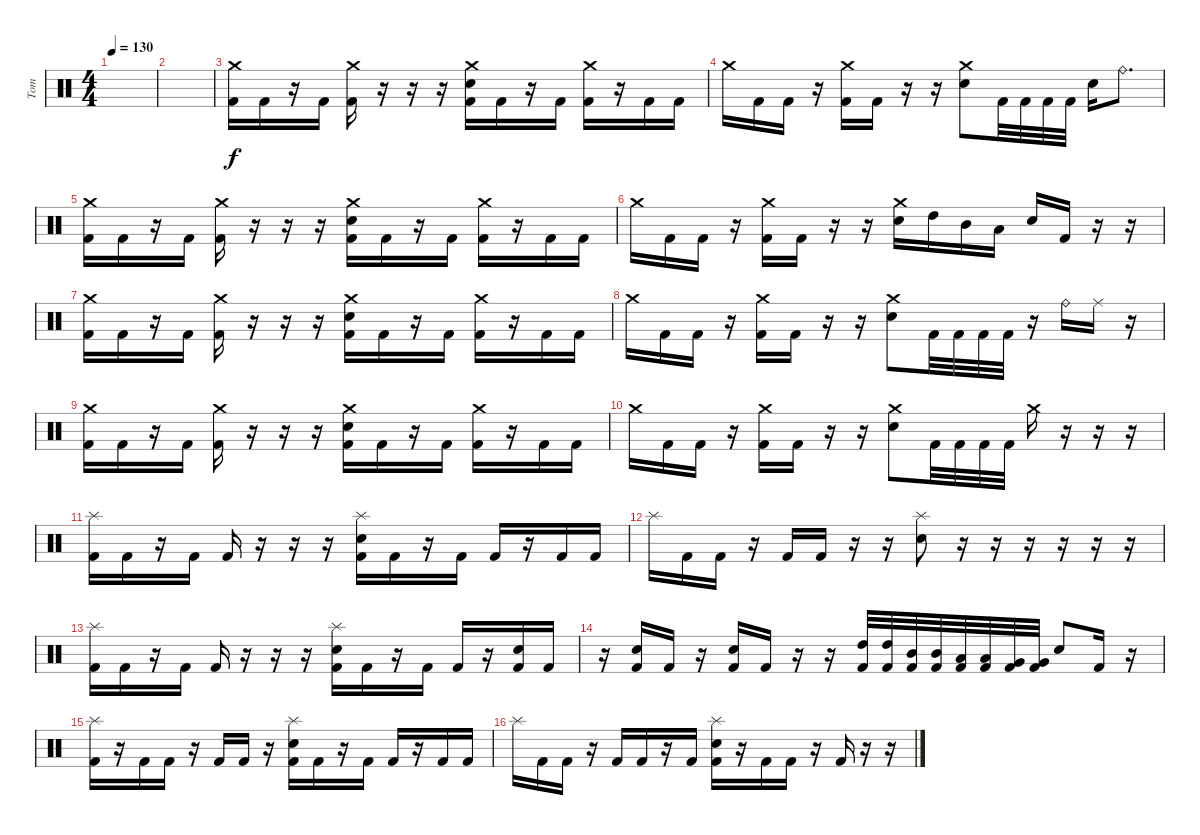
\track ("Tom" "Tom") {instrument percussion}
\staff {score}
\articulation defaults
\ts (4 4)
\tempo 130
\clef neutral
\ks c
|
|
("Crash medium (hit)" "Kick (hit) 2").16 "Kick (hit) 2".16 r.16 "Kick (hit) 2".16 ("Crash medium (hit)" "Kick (hit) 2").16 r.16 r.16 r.16 ("Crash medium (hit)" "Electric Snare (hit)" "Kick (hit) 2").16 "Kick (hit) 2".16 r.16 "Kick (hit) 2".16 ("Crash medium (hit)" "Kick (hit) 2").16 r.16 "Kick (hit) 2".16 "Kick (hit) 2".16 |
"Crash medium (hit)".16 "Kick (hit) 2".16 "Kick (hit) 2".16 r.16 ("Crash medium (hit)" "Kick (hit) 2").16 "Kick (hit) 2".16 r.16 r.16 ("Crash medium (hit)" "Electric Snare (hit)").8 "Kick (hit) 2".32 "Kick (hit) 2".32 "Kick (hit) 2".32 "Kick (hit) 2".32 "Electric Snare (hit)".16 "Ride (bell)".8{d} |
("Crash medium (hit)" "Kick (hit) 2").16 "Kick (hit) 2".16 r.16 "Kick (hit) 2".16 ("Crash medium (hit)" "Kick (hit) 2").16 r.16 r.16 r.16 ("Crash medium (hit)" "Electric Snare (hit)" "Kick (hit) 2").16 "Kick (hit) 2".16 r.16 "Kick (hit) 2".16 ("Crash medium (hit)" "Kick (hit) 2").16 r.16 "Kick (hit) 2".16 "Kick (hit) 2".16 |
"Crash medium (hit)".16 "Kick (hit) 2".16 "Kick (hit) 2".16 r.16 ("Crash medium (hit)" "Kick (hit) 2").16 "Kick (hit) 2".16 r.16 r.16 ("Crash medium (hit)" "Electric Snare (hit)").16 "High Tom (hit)".16 "Mid Tom (hit)".16 "Low Tom (hit)".16 "Electric Snare (hit)".16 "Kick (hit) 2".16 r.16 r.16 |
("Crash medium (hit)" "Kick (hit) 2").16 "Kick (hit) 2".16 r.16 "Kick (hit) 2".16 ("Crash medium (hit)" "Kick (hit) 2").16 r.16 r.16 r.16 ("Crash medium (hit)" "Electric Snare (hit)" "Kick (hit) 2").16 "Kick (hit) 2".16 r.16 "Kick (hit) 2".16 ("Crash medium (hit)" "Kick (hit) 2").16 r.16 "Kick (hit) 2".16 "Kick (hit) 2".16 |
"Crash medium (hit)".16 "Kick (hit) 2".16 "Kick (hit) 2".16 r.16 ("Crash medium (hit)" "Kick (hit) 2").16 "Kick (hit) 2".16 r.16 r.16 ("Crash medium (hit)" "Electric Snare (hit)").8 "Kick (hit) 2".32 "Kick (hit) 2".32 "Kick (hit) 2".32 "Kick (hit) 2".32 r.16 "Ride (bell)".16 "Ride (middle)".16 r.16 |
("Crash medium (hit)" "Kick (hit) 2").16 "Kick (hit) 2".16 r.16 "Kick (hit) 2".16 ("Crash medium (hit)" "Kick (hit) 2").16 r.16 r.16 r.16 ("Crash medium (hit)" "Electric Snare (hit)" "Kick (hit) 2").16 "Kick (hit) 2".16 r.16 "Kick (hit) 2".16 ("Crash medium (hit)" "Kick (hit) 2").16 r.16 "Kick (hit) 2".16 "Kick (hit) 2".16 |
"Crash medium (hit)".16 "Kick (hit) 2".16 "Kick (hit) 2".16 r.16 ("Crash medium (hit)" "Kick (hit) 2").16 "Kick (hit) 2".16 r.16 r.16 ("Crash medium (hit)" "Electric Snare (hit)").8 "Kick (hit) 2".32 "Kick (hit) 2".32 "Kick (hit) 2".32 "Kick (hit) 2".32 "Crash medium (hit)".16 r.16 r.16 r.16 |
("Splash (hit)" "Kick (hit) 2").16 "Kick (hit) 2".16 r.16 "Kick (hit) 2".16 "Kick (hit) 2".16 r.16 r.16 r.16 ("Splash (hit)" "Electric Snare (hit)" "Kick (hit) 2").16 "Kick (hit) 2".16 r.16 "Kick (hit) 2".16 "Kick (hit) 2".16 r.16 "Kick (hit) 2".16 "Kick (hit) 2".16 |
"Splash (hit)".16 "Kick (hit) 2".16 "Kick (hit) 2".16 r.16 "Kick (hit) 2".16 "Kick (hit) 2".16 r.16 r.16 ("Splash (hit)" "Electric Snare (hit)").8 r.16 r.16 r.16 r.16 r.16 r.16 |
("Splash (hit)" "Kick (hit) 2").16 "Kick (hit) 2".16 r.16 "Kick (hit) 2".16 "Kick (hit) 2".16 r.16 r.16 r.16 ("Splash (hit)" "Electric Snare (hit)" "Kick (hit) 2").16 "Kick (hit) 2".16 r.16 "Kick (hit) 2".16 "Kick (hit) 2".16 r.16 ("Electric Snare (hit)" "Kick (hit) 2").16 "Kick (hit) 2".16 |
r.16 ("Electric Snare (hit)" "Kick (hit) 2").16 "Kick (hit) 2".16 r.16 ("Electric Snare (hit)" "Kick (hit) 2").16 "Kick (hit) 2".16 r.16 r.16 ("High Tom (hit)" "Kick (hit) 2").32 ("High Tom (hit)" "Kick (hit) 2").32 ("Mid Tom (hit)" "Kick (hit) 2").32 ("Mid Tom (hit)" "Kick (hit) 2").32 ("Low Tom (hit)" "Kick (hit) 2").32 ("Low Tom (hit)" "Kick (hit) 2").32 ("Very Low Tom (hit)" "Kick (hit) 2").32 ("Very Low Tom (hit)" "Kick (hit) 2").32 "Electric Snare (hit)".8 "Kick (hit) 2".16 r.16 |
("Splash (hit)" "Kick (hit) 2").16 r.16 "Kick (hit) 2".16 "Kick (hit) 2".16 r.16 "Kick (hit) 2".16 "Kick (hit) 2".16 r.16 ("Splash (hit)" "Electric Snare (hit)" "Kick (hit) 2").16 "Kick (hit) 2".16 r.16 "Kick (hit) 2".16 "Kick (hit) 2".16 r.16 "Kick (hit) 2".16 "Kick (hit) 2".16 |
"Splash (hit)".16 "Kick (hit) 2".16 "Kick (hit) 2".16 r.16 "Kick (hit) 2".16 "Kick (hit) 2".16 r.16 "Kick (hit) 2".16 ("Splash (hit)" "Electric Snare (hit)" "Kick (hit) 2").16 r.16 "Kick (hit) 2".16 "Kick (hit) 2".16 r.16 "Kick (hit) 2".16 r.16 r.16
